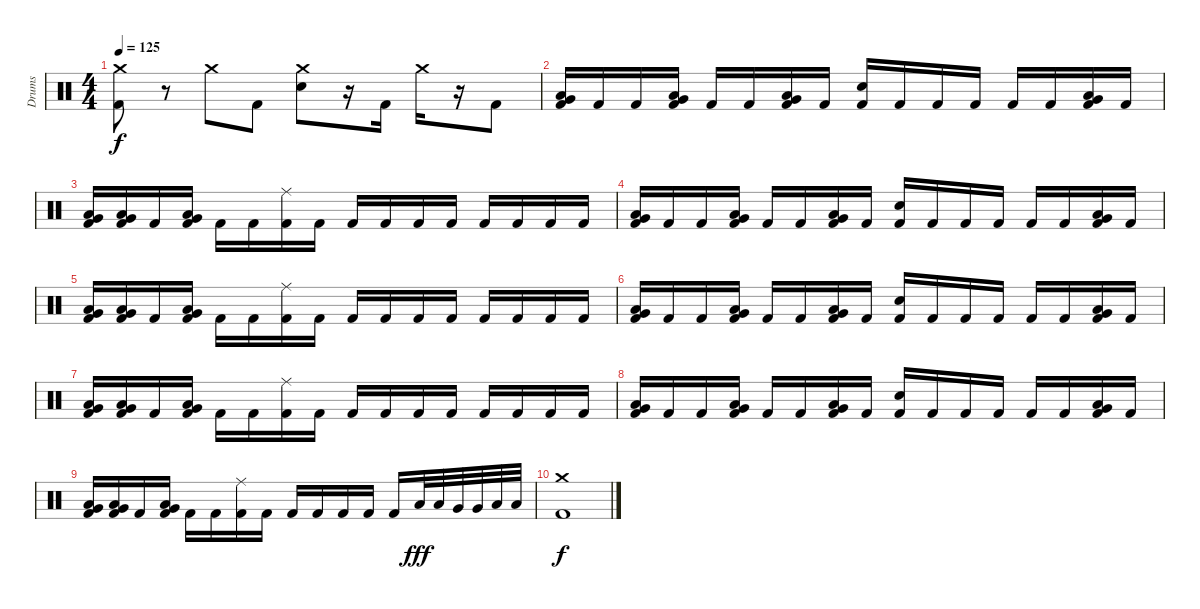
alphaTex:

\track ("Drums" "Drums") {instrument percussion}
\staff {score}
\articulation defaults
\ts (4 4)
\tempo 125
\clef neutral
\ks c
("Crash medium (hit)" "Kick (hit) 2").8{dy f} r.8 "Crash medium (hit)".8 "Kick (hit) 2".8 ("Crash medium (hit)" "Electric Snare (hit)").8 r.16 "Kick (hit) 2".16 "Crash medium (hit)".16 r.16 "Kick (hit) 2".8 |
("Low Floor Tom (hit)" "Very Low Tom (hit)" "Kick (hit) 2").16 "Kick (hit) 2".16 "Kick (hit) 2".16 ("Low Floor Tom (hit)" "Very Low Tom (hit)" "Kick (hit) 2").16 "Kick (hit) 2".16 "Kick (hit) 2".16 ("Low Floor Tom (hit)" "Very Low Tom (hit)" "Kick (hit) 2").16 "Kick (hit) 2".16 ("Electric Snare (hit)" "Kick (hit) 2").16 "Kick (hit) 2".16 "Kick (hit) 2".16 "Kick (hit) 2".16 "Kick (hit) 2".16 "Kick (hit) 2".16 ("Low Floor Tom (hit)" "Very Low Tom (hit)" "Kick (hit) 2").16 "Kick (hit) 2".16 |
("Low Floor Tom (hit)" "Very Low Tom (hit)" "Kick (hit) 2").16 ("Low Floor Tom (hit)" "Very Low Tom (hit)" "Kick (hit) 2").16 "Kick (hit) 2".16 ("Low Floor Tom (hit)" "Very Low Tom (hit)" "Kick (hit) 2").16 "Kick (hit) 2".16 "Kick (hit) 2".16 ("Ride (middle)" "Kick (hit) 2").16 "Kick (hit) 2".16 "Kick (hit) 2".16 "Kick (hit) 2".16 "Kick (hit) 2".16 "Kick (hit) 2".16 "Kick (hit) 2".16 "Kick (hit) 2".16 "Kick (hit) 2".16 "Kick (hit) 2".16 |
("Low Floor Tom (hit)" "Very Low Tom (hit)" "Kick (hit) 2").16 "Kick (hit) 2".16 "Kick (hit) 2".16 ("Low Floor Tom (hit)" "Very Low Tom (hit)" "Kick (hit) 2").16 "Kick (hit) 2".16 "Kick (hit) 2".16 ("Low Floor Tom (hit)" "Very Low Tom (hit)" "Kick (hit) 2").16 "Kick (hit) 2".16 ("Electric Snare (hit)" "Kick (hit) 2").16 "Kick (hit) 2".16 "Kick (hit) 2".16 "Kick (hit) 2".16 "Kick (hit) 2".16 "Kick (hit) 2".16 ("Low Floor Tom (hit)" "Very Low Tom (hit)" "Kick (hit) 2").16 "Kick (hit) 2".16 |
("Low Floor Tom (hit)" "Very Low Tom (hit)" "Kick (hit) 2").16 ("Low Floor Tom (hit)" "Very Low Tom (hit)" "Kick (hit) 2").16 "Kick (hit) 2".16 ("Low Floor Tom (hit)" "Very Low Tom (hit)" "Kick (hit) 2").16 "Kick (hit) 2".16 "Kick (hit) 2".16 ("Ride (middle)" "Kick (hit) 2").16 "Kick (hit) 2".16 "Kick (hit) 2".16 "Kick (hit) 2".16 "Kick (hit) 2".16 "Kick (hit) 2".16 "Kick (hit) 2".16 "Kick (hit) 2".16 "Kick (hit) 2".16 "Kick (hit) 2".16 |
("Low Floor Tom (hit)" "Very Low Tom (hit)" "Kick (hit) 2").16 "Kick (hit) 2".16 "Kick (hit) 2".16 ("Low Floor Tom (hit)" "Very Low Tom (hit)" "Kick (hit) 2").16 "Kick (hit) 2".16 "Kick (hit) 2".16 ("Low Floor Tom (hit)" "Very Low Tom (hit)" "Kick (hit) 2").16 "Kick (hit) 2".16 ("Electric Snare (hit)" "Kick (hit) 2").16 "Kick (hit) 2".16 "Kick (hit) 2".16 "Kick (hit) 2".16 "Kick (hit) 2".16 "Kick (hit) 2".16 ("Low Floor Tom (hit)" "Very Low Tom (hit)" "Kick (hit) 2").16 "Kick (hit) 2".16 |
("Low Floor Tom (hit)" "Very Low Tom (hit)" "Kick (hit) 2").16 ("Low Floor Tom (hit)" "Very Low Tom (hit)" "Kick (hit) 2").16 "Kick (hit) 2".16 ("Low Floor Tom (hit)" "Very Low Tom (hit)" "Kick (hit) 2").16 "Kick (hit) 2".16 "Kick (hit) 2".16 ("Ride (middle)" "Kick (hit) 2").16 "Kick (hit) 2".16 "Kick (hit) 2".16 "Kick (hit) 2".16 "Kick (hit) 2".16 "Kick (hit) 2".16 "Kick (hit) 2".16 "Kick (hit) 2".16 "Kick (hit) 2".16 "Kick (hit) 2".16 |
("Low Floor Tom (hit)" "Very Low Tom (hit)" "Kick (hit) 2").16 "Kick (hit) 2".16 "Kick (hit) 2".16 ("Low Floor Tom (hit)" "Very Low Tom (hit)" "Kick (hit) 2").16 "Kick (hit) 2".16 "Kick (hit) 2".16 ("Low Floor Tom (hit)" "Very Low Tom (hit)" "Kick (hit) 2").16 "Kick (hit) 2".16 ("Electric Snare (hit)" "Kick (hit) 2").16 "Kick (hit) 2".16 "Kick (hit) 2".16 "Kick (hit) 2".16 "Kick (hit) 2".16 "Kick (hit) 2".16 ("Low Floor Tom (hit)" "Very Low Tom (hit)" "Kick (hit) 2").16 "Kick (hit) 2".16 |
("Low Floor Tom (hit)" "Very Low Tom (hit)" "Kick (hit) 2").16 ("Low Floor Tom (hit)" "Very Low Tom (hit)" "Kick (hit) 2").16 "Kick (hit) 2".16 ("Low Floor Tom (hit)" "Very Low Tom (hit)" "Kick (hit) 2").16 "Kick (hit) 2".16 "Kick (hit) 2".16 ("Ride (middle)" "Kick (hit) 2").16 "Kick (hit) 2".16 "Kick (hit) 2".16 "Kick (hit) 2".16 "Kick (hit) 2".16 "Kick (hit) 2".16 "Kick (hit) 2".16 "Low Tom (hit)".32{dy fff} "Low Tom (hit)".32 "Very Low Tom (hit)".32 "Very Low Tom (hit)".32 "Low Floor Tom (hit)".32 "Low Floor Tom (hit)".32 |
("Crash medium (hit)" "Kick (hit) 2").1{dy f}
